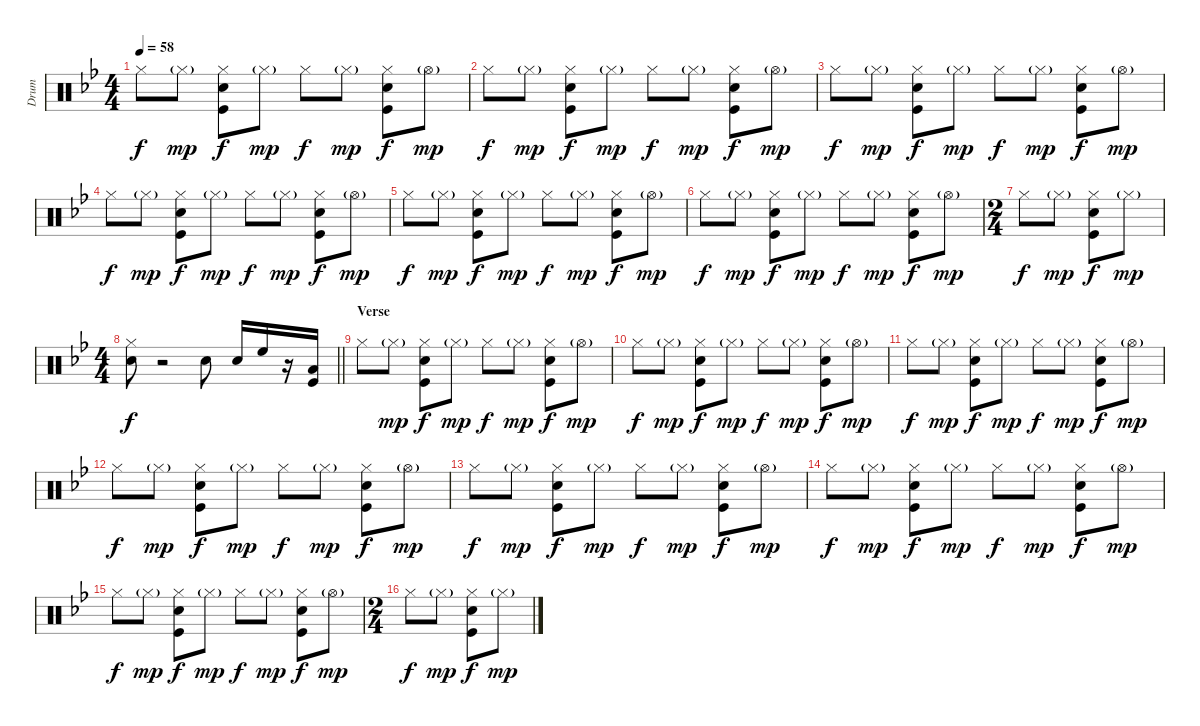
\track ("Drum" "Drum") {instrument percussion}
\staff {score}
\articulation defaults
\ts (4 4)
\tempo 58
\clef neutral
\ks bb "Hi-Hat (closed)".8{dy f} "Hi-Hat (closed)"{g}.8{dy mp}
("Hi-Hat (closed)" "Kick (hit)" "Snare (hit) 2").8{dy f} "Hi-Hat (closed)"{g}.8{dy mp} "Hi-Hat (closed)".8{dy f} "Hi-Hat (closed)"{g}.8{dy mp} ("Hi-Hat (closed)" "Kick (hit)" "Snare (hit) 2").8{dy f} "Hi-Hat (open)"{g}.8{dy mp} |
"Hi-Hat (closed)".8{dy f} "Hi-Hat (closed)"{g}.8{dy mp} ("Hi-Hat (closed)" "Kick (hit)" "Snare (hit) 2").8{dy f} "Hi-Hat (closed)"{g}.8{dy mp} "Hi-Hat (closed)".8{dy f} "Hi-Hat (closed)"{g}.8{dy mp} ("Hi-Hat (closed)" "Kick (hit)" "Snare (hit) 2").8{dy f} "Hi-Hat (open)"{g}.8{dy mp} |
"Hi-Hat (closed)".8{dy f} "Hi-Hat (closed)"{g}.8{dy mp} ("Hi-Hat (closed)" "Kick (hit)" "Snare (hit) 2").8{dy f} "Hi-Hat (closed)"{g}.8{dy mp} "Hi-Hat (closed)".8{dy f} "Hi-Hat (closed)"{g}.8{dy mp} ("Hi-Hat (closed)" "Kick (hit)" "Snare (hit) 2").8{dy f} "Hi-Hat (open)"{g}.8{dy mp} |
"Hi-Hat (closed)".8{dy f} "Hi-Hat (closed)"{g}.8{dy mp} ("Hi-Hat (closed)" "Kick (hit)" "Snare (hit) 2").8{dy f} "Hi-Hat (closed)"{g}.8{dy mp} "Hi-Hat (closed)".8{dy f} "Hi-Hat (closed)"{g}.8{dy mp} ("Hi-Hat (closed)" "Kick (hit)" "Snare (hit) 2").8{dy f} "Hi-Hat (open)"{g}.8{dy mp} |
"Hi-Hat (closed)".8{dy f} "Hi-Hat (closed)"{g}.8{dy mp} ("Hi-Hat (closed)" "Kick (hit)" "Snare (hit) 2").8{dy f} "Hi-Hat (closed)"{g}.8{dy mp} "Hi-Hat (closed)".8{dy f} "Hi-Hat (closed)"{g}.8{dy mp} ("Hi-Hat (closed)" "Kick (hit)" "Snare (hit) 2").8{dy f} "Hi-Hat (open)"{g}.8{dy mp} |
"Hi-Hat (closed)".8{dy f} "Hi-Hat (closed)"{g}.8{dy mp} ("Hi-Hat (closed)" "Kick (hit)" "Snare (hit) 2").8{dy f} "Hi-Hat (closed)"{g}.8{dy mp} "Hi-Hat (closed)".8{dy f} "Hi-Hat (closed)"{g}.8{dy mp} ("Hi-Hat (closed)" "Kick (hit)" "Snare (hit) 2").8{dy f} "Hi-Hat (open)"{g}.8{dy mp} |
\ts (2 4)
"Hi-Hat (closed)".8{dy f} "Hi-Hat (closed)"{g}.8{dy mp} ("Hi-Hat (closed)" "Kick (hit)" "Snare (hit) 2").8{dy f} "Hi-Hat (closed)"{g}.8{dy mp} |
\ts (4 4)
\barLineRight lightlight
("Hi-Hat (closed)" "Snare (hit) 2").8{dy f} r.2 "Snare (hit) 2".8 "Snare (hit) 2".16 "High Floor Tom (hit)".16 r.16 ("Kick (hit)" "Low Tom (hit)").16 |
\section ("" "Verse")
"Hi-Hat (closed)".8 "Hi-Hat (closed)"{g}.8{dy mp} ("Hi-Hat (closed)" "Kick (hit)" "Snare (hit) 2").8{dy f} "Hi-Hat (closed)"{g}.8{dy mp} "Hi-Hat (closed)".8{dy f} "Hi-Hat (closed)"{g}.8{dy mp} ("Hi-Hat (closed)" "Kick (hit)" "Snare (hit) 2").8{dy f} "Hi-Hat (open)"{g}.8{dy mp} |
"Hi-Hat (closed)".8{dy f} "Hi-Hat (closed)"{g}.8{dy mp} ("Hi-Hat (closed)" "Kick (hit)" "Snare (hit) 2").8{dy f} "Hi-Hat (closed)"{g}.8{dy mp} "Hi-Hat (closed)".8{dy f} "Hi-Hat (closed)"{g}.8{dy mp} ("Hi-Hat (closed)" "Kick (hit)" "Snare (hit) 2").8{dy f} "Hi-Hat (open)"{g}.8{dy mp} |
"Hi-Hat (closed)".8{dy f} "Hi-Hat (closed)"{g}.8{dy mp} ("Hi-Hat (closed)" "Kick (hit)" "Snare (hit) 2").8{dy f} "Hi-Hat (closed)"{g}.8{dy mp} "Hi-Hat (closed)".8{dy f} "Hi-Hat (closed)"{g}.8{dy mp} ("Hi-Hat (closed)" "Kick (hit)" "Snare (hit) 2").8{dy f} "Hi-Hat (open)"{g}.8{dy mp} |
"Hi-Hat (closed)".8{dy f} "Hi-Hat (closed)"{g}.8{dy mp} ("Hi-Hat (closed)" "Kick (hit)" "Snare (hit) 2").8{dy f} "Hi-Hat (closed)"{g}.8{dy mp} "Hi-Hat (closed)".8{dy f} "Hi-Hat (closed)"{g}.8{dy mp} ("Hi-Hat (closed)" "Kick (hit)" "Snare (hit) 2").8{dy f} "Hi-Hat (open)"{g}.8{dy mp} |
"Hi-Hat (closed)".8{dy f} "Hi-Hat (closed)"{g}.8{dy mp} ("Hi-Hat (closed)" "Kick (hit)" "Snare (hit) 2").8{dy f} "Hi-Hat (closed)"{g}.8{dy mp} "Hi-Hat (closed)".8{dy f} "Hi-Hat (closed)"{g}.8{dy mp} ("Hi-Hat (closed)" "Kick (hit)" "Snare (hit) 2").8{dy f} "Hi-Hat (open)"{g}.8{dy mp} |
"Hi-Hat (closed)".8{dy f} "Hi-Hat (closed)"{g}.8{dy mp} ("Hi-Hat (closed)" "Kick (hit)" "Snare (hit) 2").8{dy f} "Hi-Hat (closed)"{g}.8{dy mp} "Hi-Hat (closed)".8{dy f} "Hi-Hat (closed)"{g}.8{dy mp} ("Hi-Hat (closed)" "Kick (hit)" "Snare (hit) 2").8{dy f} "Hi-Hat (open)"{g}.8{dy mp} |
"Hi-Hat (closed)".8{dy f} "Hi-Hat (closed)"{g}.8{dy mp} ("Hi-Hat (closed)" "Kick (hit)" "Snare (hit) 2").8{dy f} "Hi-Hat (closed)"{g}.8{dy mp} "Hi-Hat (closed)".8{dy f} "Hi-Hat (closed)"{g}.8{dy mp} ("Hi-Hat (closed)" "Kick (hit)" "Snare (hit) 2").8{dy f} "Hi-Hat (open)"{g}.8{dy mp} |
\ts (2 4)
"Hi-Hat (closed)".8{dy f} "Hi-Hat (closed)"{g}.8{dy mp} ("Hi-Hat (closed)" "Kick (hit)" "Snare (hit) 2").8{dy f} "Hi-Hat (closed)"{g}.8{dy mp}
